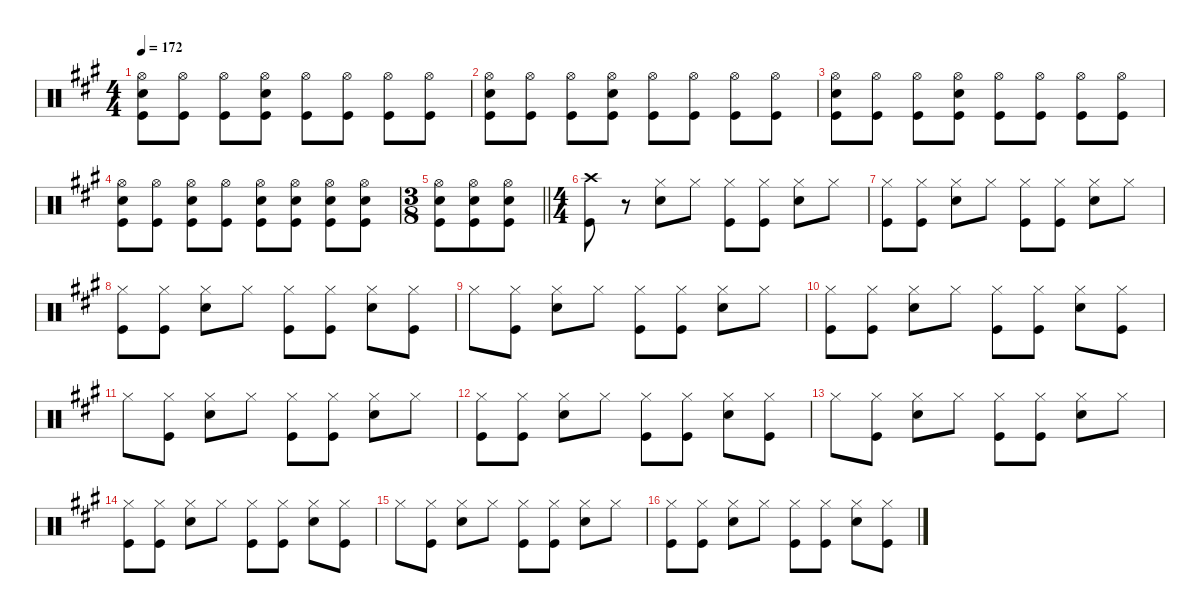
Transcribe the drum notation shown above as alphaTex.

\defaultSystemsLayout 4
\hideDynamics
\bracketExtendMode nobrackets
\singleTrackTrackNamePolicy hidden
\multiTrackTrackNamePolicy hidden
\firstSystemTrackNameMode fullname
\firstSystemTrackNameOrientation horizontal
\otherSystemsTrackNameOrientation horizontal
\track ("Percussion" "drm.") {instrument percussion}
\staff {score}
\articulation defaults
\ts (4 4)
\beaming (8 2 2 2 2)
\tempo 172
\clef neutral
\ks a
("Hi-Hat (open)"{acc forcenatural} "Snare (hit) 2"{acc forcenatural} "Kick (hit)"{acc forcenatural}).8{dy f beam Down} ("Hi-Hat (open)"{acc forcenatural} "Kick (hit)"{acc forcenatural}).8{beam Down} ("Hi-Hat (open)"{acc forcenatural} "Kick (hit)"{acc forcenatural}).8{beam Down} ("Hi-Hat (open)"{acc forcenatural} "Snare (hit) 2"{acc forcenatural} "Kick (hit)"{acc forcenatural}).8{beam Down} ("Hi-Hat (open)"{acc forcenatural} "Kick (hit)"{acc forcenatural}).8{beam Down} ("Hi-Hat (open)"{acc forcenatural} "Kick (hit)"{acc forcenatural}).8{beam Down} ("Hi-Hat (open)"{acc forcenatural} "Kick (hit)"{acc forcenatural}).8{beam Down} ("Hi-Hat (open)"{acc forcenatural} "Kick (hit)"{acc forcenatural}).8{beam Down} |
("Hi-Hat (open)"{acc forcenatural} "Snare (hit) 2"{acc forcenatural} "Kick (hit)"{acc forcenatural}).8{beam Down} ("Hi-Hat (open)"{acc forcenatural} "Kick (hit)"{acc forcenatural}).8{beam Down} ("Hi-Hat (open)"{acc forcenatural} "Kick (hit)"{acc forcenatural}).8{beam Down} ("Hi-Hat (open)"{acc forcenatural} "Snare (hit) 2"{acc forcenatural} "Kick (hit)"{acc forcenatural}).8{beam Down} ("Hi-Hat (open)"{acc forcenatural} "Kick (hit)"{acc forcenatural}).8{beam Down} ("Hi-Hat (open)"{acc forcenatural} "Kick (hit)"{acc forcenatural}).8{beam Down} ("Hi-Hat (open)"{acc forcenatural} "Kick (hit)"{acc forcenatural}).8{beam Down} ("Hi-Hat (open)"{acc forcenatural} "Kick (hit)"{acc forcenatural}).8{beam Down} |
("Hi-Hat (open)"{acc forcenatural} "Snare (hit) 2"{acc forcenatural} "Kick (hit)"{acc forcenatural}).8{beam Down} ("Hi-Hat (open)"{acc forcenatural} "Kick (hit)"{acc forcenatural}).8{beam Down} ("Hi-Hat (open)"{acc forcenatural} "Kick (hit)"{acc forcenatural}).8{beam Down} ("Hi-Hat (open)"{acc forcenatural} "Snare (hit) 2"{acc forcenatural} "Kick (hit)"{acc forcenatural}).8{beam Down} ("Hi-Hat (open)"{acc forcenatural} "Kick (hit)"{acc forcenatural}).8{beam Down} ("Hi-Hat (open)"{acc forcenatural} "Kick (hit)"{acc forcenatural}).8{beam Down} ("Hi-Hat (open)"{acc forcenatural} "Kick (hit)"{acc forcenatural}).8{beam Down} ("Hi-Hat (open)"{acc forcenatural} "Kick (hit)"{acc forcenatural}).8{beam Down} |
("Hi-Hat (open)"{acc forcenatural} "Snare (hit) 2"{acc forcenatural} "Kick (hit)"{acc forcenatural}).8{beam Down} ("Hi-Hat (open)"{acc forcenatural} "Kick (hit)"{acc forcenatural}).8{beam Down} ("Hi-Hat (open)"{acc forcenatural} "Snare (hit) 2"{acc forcenatural} "Kick (hit)"{acc forcenatural}).8{beam Down} ("Hi-Hat (open)"{acc forcenatural} "Kick (hit)"{acc forcenatural}).8{beam Down} ("Hi-Hat (open)"{acc forcenatural} "Snare (hit) 2"{acc forcenatural} "Kick (hit)"{acc forcenatural}).8{beam Down} ("Hi-Hat (open)"{acc forcenatural} "Snare (hit) 2"{acc forcenatural} "Kick (hit)"{acc forcenatural}).8{beam Down} ("Hi-Hat (open)"{acc forcenatural} "Snare (hit) 2"{acc forcenatural} "Kick (hit)"{acc forcenatural}).8{beam Down} ("Hi-Hat (open)"{acc forcenatural} "Snare (hit) 2"{acc forcenatural} "Kick (hit)"{acc forcenatural}).8{beam Down} |
\ts (3 8)
\beaming (8 3)
\barLineRight lightlight
("Hi-Hat (open)"{acc forcenatural} "Snare (hit) 2"{acc forcenatural} "Kick (hit)"{acc forcenatural}).8{beam Down} ("Hi-Hat (open)"{acc forcenatural} "Snare (hit) 2"{acc forcenatural} "Kick (hit)"{acc forcenatural}).8{beam Down} ("Hi-Hat (open)"{acc forcenatural} "Snare (hit) 2"{acc forcenatural} "Kick (hit)"{acc forcenatural}).8{beam Down} |
\ts (4 4)
\beaming (8 2 2 2 2)
("Crash high (hit)"{acc forcenatural} "Kick (hit)"{acc forcenatural}).8{beam Down} r.8{beam Down} ("Hi-Hat (closed)"{acc forcenatural} "Snare (hit) 2"{acc forcenatural}).8{beam Down} "Hi-Hat (closed)"{acc forcenatural}.8{beam Down} ("Hi-Hat (closed)"{acc forcenatural} "Kick (hit)"{acc forcenatural}).8{beam Down} ("Hi-Hat (closed)"{acc forcenatural} "Kick (hit)"{acc forcenatural}).8{beam Down} ("Hi-Hat (closed)"{acc forcenatural} "Snare (hit) 2"{acc forcenatural}).8{beam Down} "Hi-Hat (closed)"{acc forcenatural}.8{beam Down} |
("Hi-Hat (closed)"{acc forcenatural} "Kick (hit)"{acc forcenatural}).8{beam Down} ("Hi-Hat (closed)"{acc forcenatural} "Kick (hit)"{acc forcenatural}).8{beam Down} ("Hi-Hat (closed)"{acc forcenatural} "Snare (hit) 2"{acc forcenatural}).8{beam Down} "Hi-Hat (closed)"{acc forcenatural}.8{beam Down} ("Hi-Hat (closed)"{acc forcenatural} "Kick (hit)"{acc forcenatural}).8{beam Down} ("Hi-Hat (closed)"{acc forcenatural} "Kick (hit)"{acc forcenatural}).8{beam Down} ("Hi-Hat (closed)"{acc forcenatural} "Snare (hit) 2"{acc forcenatural}).8{beam Down} "Hi-Hat (closed)"{acc forcenatural}.8{beam Down} |
("Hi-Hat (closed)"{acc forcenatural} "Kick (hit)"{acc forcenatural}).8{beam Down} ("Hi-Hat (closed)"{acc forcenatural} "Kick (hit)"{acc forcenatural}).8{beam Down} ("Hi-Hat (closed)"{acc forcenatural} "Snare (hit) 2"{acc forcenatural}).8{beam Down} "Hi-Hat (closed)"{acc forcenatural}.8{beam Down} ("Hi-Hat (closed)"{acc forcenatural} "Kick (hit)"{acc forcenatural}).8{beam Down} ("Hi-Hat (closed)"{acc forcenatural} "Kick (hit)"{acc forcenatural}).8{beam Down} ("Hi-Hat (closed)"{acc forcenatural} "Snare (hit) 2"{acc forcenatural}).8{beam Down} ("Hi-Hat (closed)"{acc forcenatural} "Kick (hit)"{acc forcenatural}).8{beam Down} |
"Hi-Hat (closed)"{acc forcenatural}.8{beam Down} ("Hi-Hat (closed)"{acc forcenatural} "Kick (hit)"{acc forcenatural}).8{beam Down} ("Hi-Hat (closed)"{acc forcenatural} "Snare (hit) 2"{acc forcenatural}).8{beam Down} "Hi-Hat (closed)"{acc forcenatural}.8{beam Down} ("Hi-Hat (closed)"{acc forcenatural} "Kick (hit)"{acc forcenatural}).8{beam Down} ("Hi-Hat (closed)"{acc forcenatural} "Kick (hit)"{acc forcenatural}).8{beam Down} ("Hi-Hat (closed)"{acc forcenatural} "Snare (hit) 2"{acc forcenatural}).8{beam Down} "Hi-Hat (closed)"{acc forcenatural}.8{beam Down} |
("Hi-Hat (closed)"{acc forcenatural} "Kick (hit)"{acc forcenatural}).8{beam Down} ("Hi-Hat (closed)"{acc forcenatural} "Kick (hit)"{acc forcenatural}).8{beam Down} ("Hi-Hat (closed)"{acc forcenatural} "Snare (hit) 2"{acc forcenatural}).8{beam Down} "Hi-Hat (closed)"{acc forcenatural}.8{beam Down} ("Hi-Hat (closed)"{acc forcenatural} "Kick (hit)"{acc forcenatural}).8{beam Down} ("Hi-Hat (closed)"{acc forcenatural} "Kick (hit)"{acc forcenatural}).8{beam Down} ("Hi-Hat (closed)"{acc forcenatural} "Snare (hit) 2"{acc forcenatural}).8{beam Down} ("Hi-Hat (closed)"{acc forcenatural} "Kick (hit)"{acc forcenatural}).8{beam Down} |
"Hi-Hat (closed)"{acc forcenatural}.8{beam Down} ("Hi-Hat (closed)"{acc forcenatural} "Kick (hit)"{acc forcenatural}).8{beam Down} ("Hi-Hat (closed)"{acc forcenatural} "Snare (hit) 2"{acc forcenatural}).8{beam Down} "Hi-Hat (closed)"{acc forcenatural}.8{beam Down} ("Hi-Hat (closed)"{acc forcenatural} "Kick (hit)"{acc forcenatural}).8{beam Down} ("Hi-Hat (closed)"{acc forcenatural} "Kick (hit)"{acc forcenatural}).8{beam Down} ("Hi-Hat (closed)"{acc forcenatural} "Snare (hit) 2"{acc forcenatural}).8{beam Down} "Hi-Hat (closed)"{acc forcenatural}.8{beam Down} |
("Hi-Hat (closed)"{acc forcenatural} "Kick (hit)"{acc forcenatural}).8{beam Down} ("Hi-Hat (closed)"{acc forcenatural} "Kick (hit)"{acc forcenatural}).8{beam Down} ("Hi-Hat (closed)"{acc forcenatural} "Snare (hit) 2"{acc forcenatural}).8{beam Down} "Hi-Hat (closed)"{acc forcenatural}.8{beam Down} ("Hi-Hat (closed)"{acc forcenatural} "Kick (hit)"{acc forcenatural}).8{beam Down} ("Hi-Hat (closed)"{acc forcenatural} "Kick (hit)"{acc forcenatural}).8{beam Down} ("Hi-Hat (closed)"{acc forcenatural} "Snare (hit) 2"{acc forcenatural}).8{beam Down} ("Hi-Hat (closed)"{acc forcenatural} "Kick (hit)"{acc forcenatural}).8{beam Down} |
"Hi-Hat (closed)"{acc forcenatural}.8{beam Down} ("Hi-Hat (closed)"{acc forcenatural} "Kick (hit)"{acc forcenatural}).8{beam Down} ("Hi-Hat (closed)"{acc forcenatural} "Snare (hit) 2"{acc forcenatural}).8{beam Down} "Hi-Hat (closed)"{acc forcenatural}.8{beam Down} ("Hi-Hat (closed)"{acc forcenatural} "Kick (hit)"{acc forcenatural}).8{beam Down} ("Hi-Hat (closed)"{acc forcenatural} "Kick (hit)"{acc forcenatural}).8{beam Down} ("Hi-Hat (closed)"{acc forcenatural} "Snare (hit) 2"{acc forcenatural}).8{beam Down} "Hi-Hat (closed)"{acc forcenatural}.8{beam Down} |
("Hi-Hat (closed)"{acc forcenatural} "Kick (hit)"{acc forcenatural}).8{beam Down} ("Hi-Hat (closed)"{acc forcenatural} "Kick (hit)"{acc forcenatural}).8{beam Down} ("Hi-Hat (closed)"{acc forcenatural} "Snare (hit) 2"{acc forcenatural}).8{beam Down} "Hi-Hat (closed)"{acc forcenatural}.8{beam Down} ("Hi-Hat (closed)"{acc forcenatural} "Kick (hit)"{acc forcenatural}).8{beam Down} ("Hi-Hat (closed)"{acc forcenatural} "Kick (hit)"{acc forcenatural}).8{beam Down} ("Hi-Hat (closed)"{acc forcenatural} "Snare (hit) 2"{acc forcenatural}).8{beam Down} ("Hi-Hat (closed)"{acc forcenatural} "Kick (hit)"{acc forcenatural}).8{beam Down} |
"Hi-Hat (closed)"{acc forcenatural}.8{beam Down} ("Hi-Hat (closed)"{acc forcenatural} "Kick (hit)"{acc forcenatural}).8{beam Down} ("Hi-Hat (closed)"{acc forcenatural} "Snare (hit) 2"{acc forcenatural}).8{beam Down} "Hi-Hat (closed)"{acc forcenatural}.8{beam Down} ("Hi-Hat (closed)"{acc forcenatural} "Kick (hit)"{acc forcenatural}).8{beam Down} ("Hi-Hat (closed)"{acc forcenatural} "Kick (hit)"{acc forcenatural}).8{beam Down} ("Hi-Hat (closed)"{acc forcenatural} "Snare (hit) 2"{acc forcenatural}).8{beam Down} "Hi-Hat (closed)"{acc forcenatural}.8{beam Down} |
("Hi-Hat (closed)"{acc forcenatural} "Kick (hit)"{acc forcenatural}).8{beam Down} ("Hi-Hat (closed)"{acc forcenatural} "Kick (hit)"{acc forcenatural}).8{beam Down} ("Hi-Hat (closed)"{acc forcenatural} "Snare (hit) 2"{acc forcenatural}).8{beam Down} "Hi-Hat (closed)"{acc forcenatural}.8{beam Down} ("Hi-Hat (closed)"{acc forcenatural} "Kick (hit)"{acc forcenatural}).8{beam Down} ("Hi-Hat (closed)"{acc forcenatural} "Kick (hit)"{acc forcenatural}).8{beam Down} ("Hi-Hat (closed)"{acc forcenatural} "Snare (hit) 2"{acc forcenatural}).8{beam Down} ("Hi-Hat (closed)"{acc forcenatural} "Kick (hit)"{acc forcenatural}).8{beam Down}
